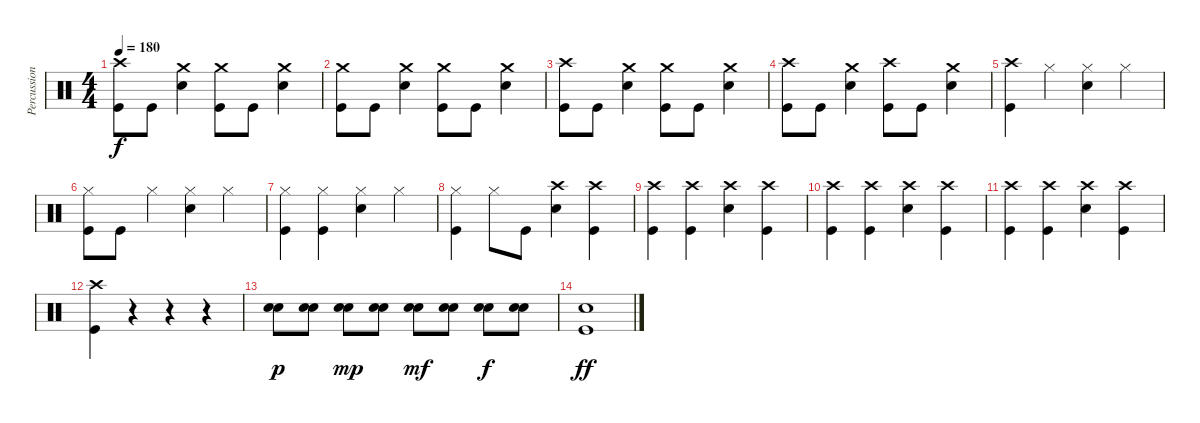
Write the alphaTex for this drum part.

\track ("Percussion" "Percussion") {instrument percussion}
\staff {score}
\articulation defaults
\ts (4 4)
\tempo 180
\clef neutral
\ks c
("Crash high (hit)" "Kick (hit)").8{dy f} "Kick (hit)".8 ("Crash medium (hit)" "Snare (hit) 2").4 ("Crash medium (hit)" "Kick (hit)").8 "Kick (hit)".8 ("Crash medium (hit)" "Snare (hit) 2").4 |
("Crash medium (hit)" "Kick (hit)").8 "Kick (hit)".8 ("Crash medium (hit)" "Snare (hit) 2").4 ("Crash medium (hit)" "Kick (hit)").8 "Kick (hit)".8 ("Crash medium (hit)" "Snare (hit) 2").4 |
("Crash high (hit)" "Kick (hit)").8 "Kick (hit)".8 ("Crash medium (hit)" "Snare (hit) 2").4 ("Crash medium (hit)" "Kick (hit)").8 "Kick (hit)".8 ("Crash medium (hit)" "Snare (hit) 2").4 |
("Crash high (hit)" "Kick (hit)").8 "Kick (hit)".8 ("Crash medium (hit)" "Snare (hit) 2").4 ("Crash high (hit)" "Kick (hit)").8 "Kick (hit)".8 ("Crash medium (hit)" "Snare (hit) 2").4 |
("Crash high (hit)" "Kick (hit)").4 "Hi-Hat (closed)".4 ("Hi-Hat (closed)" "Snare (hit) 2").4 "Hi-Hat (closed)".4 |
("Hi-Hat (closed)" "Kick (hit)").8 "Kick (hit)".8 "Hi-Hat (closed)".4 ("Hi-Hat (closed)" "Snare (hit) 2").4 "Hi-Hat (closed)".4 |
("Hi-Hat (closed)" "Kick (hit)").4 ("Hi-Hat (closed)" "Kick (hit)").4 ("Hi-Hat (closed)" "Snare (hit) 2").4 "Hi-Hat (closed)".4 |
("Hi-Hat (closed)" "Kick (hit)").4 "Hi-Hat (closed)".8 "Kick (hit)".8 ("Crash high (hit)" "Snare (hit) 2").4 ("Crash high (hit)" "Kick (hit)").4 |
("Crash high (hit)" "Kick (hit)").4 ("Crash high (hit)" "Kick (hit)").4 ("Crash high (hit)" "Snare (hit) 2").4 ("Crash high (hit)" "Kick (hit)").4 |
("Crash high (hit)" "Kick (hit)").4 ("Crash high (hit)" "Kick (hit)").4 ("Crash high (hit)" "Snare (hit) 2").4 ("Crash high (hit)" "Kick (hit)").4 |
("Crash high (hit)" "Kick (hit)").4 ("Crash high (hit)" "Kick (hit)").4 ("Crash high (hit)" "Snare (hit) 2").4 ("Crash high (hit)" "Kick (hit)").4 |
("Crash high (hit)" "Kick (hit)").4 r.4 r.4 r.4 |
("Snare (hit) 2" "Snare (hit) 2").8{dy p} ("Snare (hit) 2" "Snare (hit) 2").8 ("Snare (hit) 2" "Snare (hit) 2").8{dy mp} ("Snare (hit) 2" "Snare (hit) 2").8 ("Snare (hit) 2" "Snare (hit) 2").8{dy mf} ("Snare (hit) 2" "Snare (hit) 2").8 ("Snare (hit) 2" "Snare (hit) 2").8{dy f} ("Snare (hit) 2" "Snare (hit) 2").8 |
("Snare (hit) 2" "Kick (hit)").1{dy ff}
